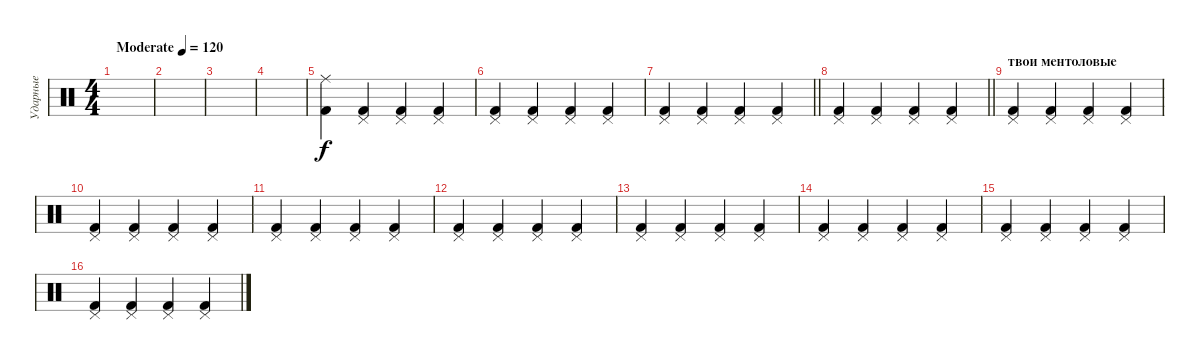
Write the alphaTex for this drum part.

\track ("Ударные" "Ударные") {instrument percussion}
\staff {score}
\articulation defaults
\ts (4 4)
\tempo (120 "Moderate")
\clef neutral
\ks c
|
|
|
|
("Ride (middle)" "Kick (hit) 2").4 ("Pedal Hi-Hat (hit)" "Kick (hit) 2").4 ("Pedal Hi-Hat (hit)" "Kick (hit) 2").4 ("Pedal Hi-Hat (hit)" "Kick (hit) 2").4 |
("Pedal Hi-Hat (hit)" "Kick (hit) 2").4 ("Pedal Hi-Hat (hit)" "Kick (hit) 2").4 ("Pedal Hi-Hat (hit)" "Kick (hit) 2").4 ("Pedal Hi-Hat (hit)" "Kick (hit) 2").4 |
\barLineRight lightlight
("Pedal Hi-Hat (hit)" "Kick (hit) 2").4 ("Pedal Hi-Hat (hit)" "Kick (hit) 2").4 ("Pedal Hi-Hat (hit)" "Kick (hit) 2").4 ("Pedal Hi-Hat (hit)" "Kick (hit) 2").4 |
\section ("" "")
\barLineRight lightlight
("Pedal Hi-Hat (hit)" "Kick (hit) 2").4 ("Pedal Hi-Hat (hit)" "Kick (hit) 2").4 ("Pedal Hi-Hat (hit)" "Kick (hit) 2").4 ("Pedal Hi-Hat (hit)" "Kick (hit) 2").4 |
\section ("" "твои ментоловые")
("Pedal Hi-Hat (hit)" "Kick (hit) 2").4 ("Pedal Hi-Hat (hit)" "Kick (hit) 2").4 ("Pedal Hi-Hat (hit)" "Kick (hit) 2").4 ("Pedal Hi-Hat (hit)" "Kick (hit) 2").4 |
("Pedal Hi-Hat (hit)" "Kick (hit) 2").4 ("Pedal Hi-Hat (hit)" "Kick (hit) 2").4 ("Pedal Hi-Hat (hit)" "Kick (hit) 2").4 ("Pedal Hi-Hat (hit)" "Kick (hit) 2").4 |
("Pedal Hi-Hat (hit)" "Kick (hit) 2").4 ("Pedal Hi-Hat (hit)" "Kick (hit) 2").4 ("Pedal Hi-Hat (hit)" "Kick (hit) 2").4 ("Pedal Hi-Hat (hit)" "Kick (hit) 2").4 |
("Pedal Hi-Hat (hit)" "Kick (hit) 2").4 ("Pedal Hi-Hat (hit)" "Kick (hit) 2").4 ("Pedal Hi-Hat (hit)" "Kick (hit) 2").4 ("Pedal Hi-Hat (hit)" "Kick (hit) 2").4 |
("Pedal Hi-Hat (hit)" "Kick (hit) 2").4 ("Pedal Hi-Hat (hit)" "Kick (hit) 2").4 ("Pedal Hi-Hat (hit)" "Kick (hit) 2").4 ("Pedal Hi-Hat (hit)" "Kick (hit) 2").4 |
("Pedal Hi-Hat (hit)" "Kick (hit) 2").4 ("Pedal Hi-Hat (hit)" "Kick (hit) 2").4 ("Pedal Hi-Hat (hit)" "Kick (hit) 2").4 ("Pedal Hi-Hat (hit)" "Kick (hit) 2").4 |
("Pedal Hi-Hat (hit)" "Kick (hit) 2").4 ("Pedal Hi-Hat (hit)" "Kick (hit) 2").4 ("Pedal Hi-Hat (hit)" "Kick (hit) 2").4 ("Pedal Hi-Hat (hit)" "Kick (hit) 2").4 |
("Pedal Hi-Hat (hit)" "Kick (hit) 2").4 ("Pedal Hi-Hat (hit)" "Kick (hit) 2").4 ("Pedal Hi-Hat (hit)" "Kick (hit) 2").4 ("Pedal Hi-Hat (hit)" "Kick (hit) 2").4
